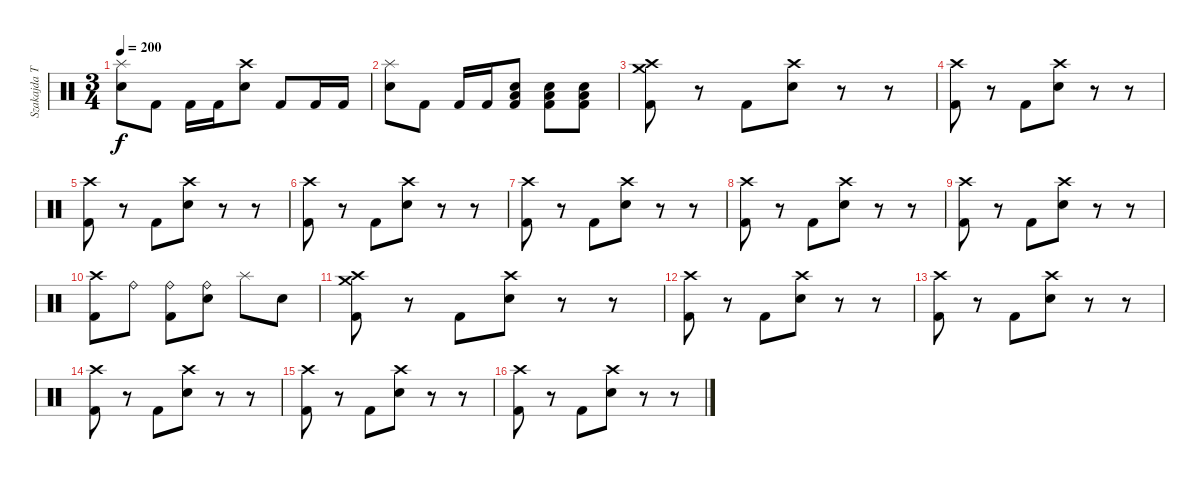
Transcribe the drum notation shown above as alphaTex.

\track ("Szakajda Tibi" "Szakajda T") {instrument percussion}
\staff {score}
\articulation defaults
\ts (3 4)
\tempo 200
\clef neutral
\ks c
("Splash (hit)" "Electric Snare (hit)").8{dy f} "Kick (hit) 2".8 "Kick (hit) 2".16 "Kick (hit) 2".16 ("Crash high (hit)" "Electric Snare (hit)").8 "Kick (hit) 2".8 "Kick (hit) 2".16 "Kick (hit) 2".16 |
("Splash (hit)" "Electric Snare (hit)").8 "Kick (hit) 2".8 "Kick (hit) 2".16 "Kick (hit) 2".16 ("Low Floor Tom (hit)" "Electric Snare (hit)" "Kick (hit) 2").8 ("Low Floor Tom (hit)" "Electric Snare (hit)" "Kick (hit) 2").8 ("Low Floor Tom (hit)" "Electric Snare (hit)" "Kick (hit) 2").8 |
("Crash high (hit)" "Crash medium (hit)" "Kick (hit) 2").8 r.8 "Kick (hit) 2".8 ("Crash high (hit)" "Electric Snare (hit)").8 r.8 r.8 |
("Crash high (hit)" "Kick (hit) 2").8 r.8 "Kick (hit) 2".8 ("Crash high (hit)" "Electric Snare (hit)").8 r.8 r.8 |
("Crash high (hit)" "Kick (hit) 2").8 r.8 "Kick (hit) 2".8 ("Crash high (hit)" "Electric Snare (hit)").8 r.8 r.8 |
("Crash high (hit)" "Kick (hit) 2").8 r.8 "Kick (hit) 2".8 ("Crash high (hit)" "Electric Snare (hit)").8 r.8 r.8 |
("Crash high (hit)" "Kick (hit) 2").8 r.8 "Kick (hit) 2".8 ("Crash high (hit)" "Electric Snare (hit)").8 r.8 r.8 |
("Crash high (hit)" "Kick (hit) 2").8 r.8 "Kick (hit) 2".8 ("Crash high (hit)" "Electric Snare (hit)").8 r.8 r.8 |
("Crash high (hit)" "Kick (hit) 2").8 r.8 "Kick (hit) 2".8 ("Crash high (hit)" "Electric Snare (hit)").8 r.8 r.8 |
("Crash high (hit)" "Kick (hit) 2").8 "Ride (bell)".8 ("Ride (bell)" "Kick (hit) 2").8 ("Ride (bell)" "Electric Snare (hit)").8 "Splash (hit)".8 "Electric Snare (hit)".8 |
("Crash high (hit)" "Crash medium (hit)" "Kick (hit) 2").8 r.8 "Kick (hit) 2".8 ("Crash high (hit)" "Electric Snare (hit)").8 r.8 r.8 |
("Crash high (hit)" "Kick (hit) 2").8 r.8 "Kick (hit) 2".8 ("Crash high (hit)" "Electric Snare (hit)").8 r.8 r.8 |
("Crash high (hit)" "Kick (hit) 2").8 r.8 "Kick (hit) 2".8 ("Crash high (hit)" "Electric Snare (hit)").8 r.8 r.8 |
("Crash high (hit)" "Kick (hit) 2").8 r.8 "Kick (hit) 2".8 ("Crash high (hit)" "Electric Snare (hit)").8 r.8 r.8 |
("Crash high (hit)" "Kick (hit) 2").8 r.8 "Kick (hit) 2".8 ("Crash high (hit)" "Electric Snare (hit)").8 r.8 r.8 |
("Crash high (hit)" "Kick (hit) 2").8 r.8 "Kick (hit) 2".8 ("Crash high (hit)" "Electric Snare (hit)").8 r.8 r.8
